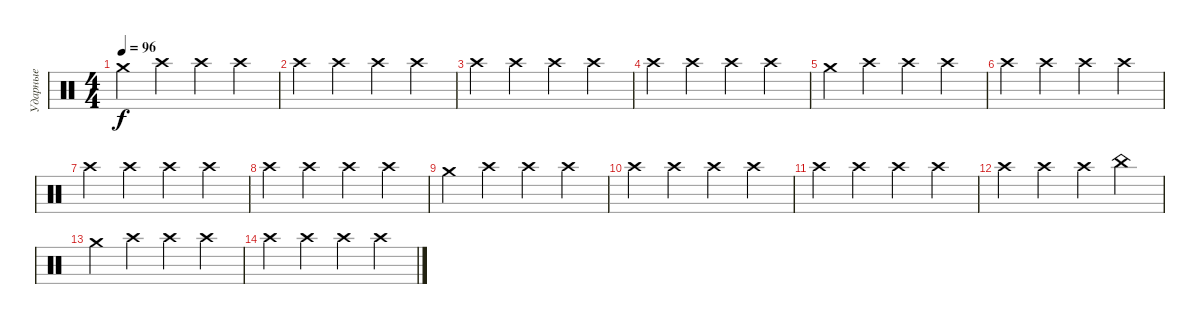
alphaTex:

\track ("Ударные" "Ударные") {instrument percussion}
\staff {score}
\articulation defaults
\ts (4 4)
\tempo 96
\clef neutral
\ks c "Crash medium (hit)".4{dy f} "Crash high (hit)".4 "Crash high (hit)".4 "Crash high (hit)".4
|
"Crash high (hit)".4 "Crash high (hit)".4 "Crash high (hit)".4 "Crash high (hit)".4 |
"Crash high (hit)".4 "Crash high (hit)".4 "Crash high (hit)".4 "Crash high (hit)".4 |
"Crash high (hit)".4 "Crash high (hit)".4 "Crash high (hit)".4 "Crash high (hit)".4 |
"Crash medium (hit)".4 "Crash high (hit)".4 "Crash high (hit)".4 "Crash high (hit)".4 |
"Crash high (hit)".4 "Crash high (hit)".4 "Crash high (hit)".4 "Crash high (hit)".4 |
"Crash high (hit)".4 "Crash high (hit)".4 "Crash high (hit)".4 "Crash high (hit)".4 |
"Crash high (hit)".4 "Crash high (hit)".4 "Crash high (hit)".4 "Crash high (hit)".4 |
"Crash medium (hit)".4 "Crash high (hit)".4 "Crash high (hit)".4 "Crash high (hit)".4 |
"Crash high (hit)".4 "Crash high (hit)".4 "Crash high (hit)".4 "Crash high (hit)".4 |
"Crash high (hit)".4 "Crash high (hit)".4 "Crash high (hit)".4 "Crash high (hit)".4 |
"Crash high (hit)".4 "Crash high (hit)".4 "Crash high (hit)".4 "China (hit)".4 |
"Crash medium (hit)".4 "Crash high (hit)".4 "Crash high (hit)".4 "Crash high (hit)".4 |
"Crash high (hit)".4 "Crash high (hit)".4 "Crash high (hit)".4 "Crash high (hit)".4
